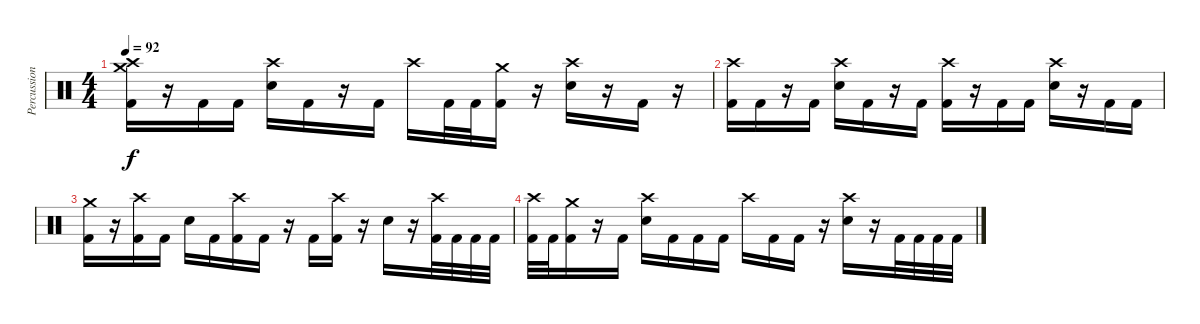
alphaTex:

\track ("Percussion" "Percussion") {instrument percussion}
\staff {score}
\articulation defaults
\ts (4 4)
\tempo 92
\clef neutral
\ks c
("Crash high (hit)" "Crash medium (hit)" "Kick (hit) 2").16{dy f} r.16 "Kick (hit) 2".16 "Kick (hit) 2".16 ("Crash high (hit)" "Electric Snare (hit)").16 "Kick (hit) 2".16 r.16 "Kick (hit) 2".16 "Crash high (hit)".16 "Kick (hit) 2".32 "Kick (hit) 2".32 ("Crash medium (hit)" "Kick (hit) 2").16 r.16 ("Crash high (hit)" "Electric Snare (hit)").16 r.16 "Kick (hit) 2".16 r.16 |
("Crash high (hit)" "Kick (hit) 2").16 "Kick (hit) 2".16 r.16 "Kick (hit) 2".16 ("Crash high (hit)" "Electric Snare (hit)").16 "Kick (hit) 2".16 r.16 "Kick (hit) 2".16 ("Crash high (hit)" "Kick (hit) 2").16 r.16 "Kick (hit) 2".16 "Kick (hit) 2".16 ("Crash high (hit)" "Electric Snare (hit)").16 r.16 "Kick (hit) 2".16 "Kick (hit) 2".16 |
("Crash medium (hit)" "Kick (hit) 2").16 r.16 ("Crash high (hit)" "Kick (hit) 2").16 "Kick (hit) 2".16 "Electric Snare (hit)".16 "Kick (hit) 2".16 ("Crash high (hit)" "Kick (hit) 2").16 "Kick (hit) 2".16 r.16 "Kick (hit) 2".16 ("Crash high (hit)" "Kick (hit) 2").16 r.16 "Electric Snare (hit)".16 r.16 ("Crash high (hit)" "Kick (hit) 2").32 "Kick (hit) 2".32 "Kick (hit) 2".32 "Kick (hit) 2".32 |
("Crash high (hit)" "Kick (hit) 2").32 "Kick (hit) 2".32 ("Crash medium (hit)" "Kick (hit) 2").16 r.16 "Kick (hit) 2".16 ("Crash high (hit)" "Electric Snare (hit)").16 "Kick (hit) 2".16 "Kick (hit) 2".16 "Kick (hit) 2".16 "Crash high (hit)".16 "Kick (hit) 2".16 "Kick (hit) 2".16 r.16 ("Crash high (hit)" "Electric Snare (hit)").16 r.16 "Kick (hit) 2".32 "Kick (hit) 2".32 "Kick (hit) 2".32 "Kick (hit) 2".32
